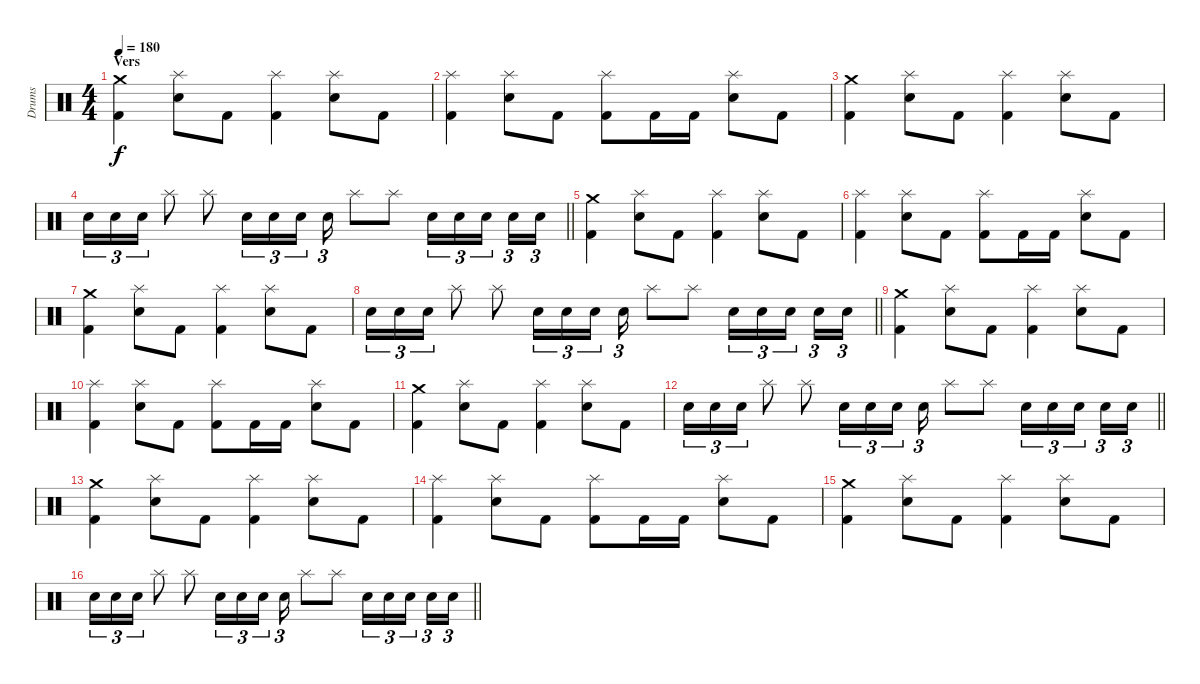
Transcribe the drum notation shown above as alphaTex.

\track ("Drums" "Drums") {instrument percussion}
\staff {score}
\articulation defaults
\ts (4 4)
\section ("" "Vers")
\tempo 180
\clef neutral
\ks c
("Crash medium (hit)" "Kick (hit) 2").4{dy f} ("Splash (hit)" "Snare (hit) 2").8 "Kick (hit) 2".8 ("Splash (hit)" "Kick (hit) 2").4 ("Splash (hit)" "Snare (hit) 2").8 "Kick (hit) 2".8 |
("Splash (hit)" "Kick (hit) 2").4 ("Splash (hit)" "Snare (hit) 2").8 "Kick (hit) 2".8 ("Splash (hit)" "Kick (hit) 2").8 "Kick (hit) 2".16 "Kick (hit) 2".16 ("Splash (hit)" "Snare (hit) 2").8 "Kick (hit) 2".8 |
("Crash medium (hit)" "Kick (hit) 2").4 ("Splash (hit)" "Snare (hit) 2").8 "Kick (hit) 2".8 ("Splash (hit)" "Kick (hit) 2").4 ("Splash (hit)" "Snare (hit) 2").8 "Kick (hit) 2".8 |
\barLineRight lightlight "Snare (hit) 2".16{tu (3 2)} "Snare (hit) 2".16{tu (3 2)} "Snare (hit) 2".16{tu (3 2)} "Splash (hit)".8 "Splash (hit)".8 "Snare (hit) 2".16{tu (3 2)} "Snare (hit) 2".16{tu (3 2)} "Snare (hit) 2".16{tu (3 2)} "Snare (hit) 2".16{tu (3 2)} "Splash (hit)".8 "Splash (hit)".8 "Snare (hit) 2".16{tu (3 2)} "Snare (hit) 2".16{tu (3 2)} "Snare (hit) 2".16{tu (3 2) beam splitsecondary} "Snare (hit) 2".16{tu (3 2)} "Snare (hit) 2".16{tu (3 2)}
|
("Crash medium (hit)" "Kick (hit) 2").4 ("Splash (hit)" "Snare (hit) 2").8 "Kick (hit) 2".8 ("Splash (hit)" "Kick (hit) 2").4 ("Splash (hit)" "Snare (hit) 2").8 "Kick (hit) 2".8 |
("Splash (hit)" "Kick (hit) 2").4 ("Splash (hit)" "Snare (hit) 2").8 "Kick (hit) 2".8 ("Splash (hit)" "Kick (hit) 2").8 "Kick (hit) 2".16 "Kick (hit) 2".16 ("Splash (hit)" "Snare (hit) 2").8 "Kick (hit) 2".8 |
("Crash medium (hit)" "Kick (hit) 2").4 ("Splash (hit)" "Snare (hit) 2").8 "Kick (hit) 2".8 ("Splash (hit)" "Kick (hit) 2").4 ("Splash (hit)" "Snare (hit) 2").8 "Kick (hit) 2".8 |
\barLineRight lightlight "Snare (hit) 2".16{tu (3 2)} "Snare (hit) 2".16{tu (3 2)} "Snare (hit) 2".16{tu (3 2)} "Splash (hit)".8 "Splash (hit)".8 "Snare (hit) 2".16{tu (3 2)} "Snare (hit) 2".16{tu (3 2)} "Snare (hit) 2".16{tu (3 2)} "Snare (hit) 2".16{tu (3 2)} "Splash (hit)".8 "Splash (hit)".8 "Snare (hit) 2".16{tu (3 2)} "Snare (hit) 2".16{tu (3 2)} "Snare (hit) 2".16{tu (3 2) beam splitsecondary} "Snare (hit) 2".16{tu (3 2)} "Snare (hit) 2".16{tu (3 2)}
|
("Crash medium (hit)" "Kick (hit) 2").4 ("Splash (hit)" "Snare (hit) 2").8 "Kick (hit) 2".8 ("Splash (hit)" "Kick (hit) 2").4 ("Splash (hit)" "Snare (hit) 2").8 "Kick (hit) 2".8 |
("Splash (hit)" "Kick (hit) 2").4 ("Splash (hit)" "Snare (hit) 2").8 "Kick (hit) 2".8 ("Splash (hit)" "Kick (hit) 2").8 "Kick (hit) 2".16 "Kick (hit) 2".16 ("Splash (hit)" "Snare (hit) 2").8 "Kick (hit) 2".8 |
("Crash medium (hit)" "Kick (hit) 2").4 ("Splash (hit)" "Snare (hit) 2").8 "Kick (hit) 2".8 ("Splash (hit)" "Kick (hit) 2").4 ("Splash (hit)" "Snare (hit) 2").8 "Kick (hit) 2".8 |
\barLineRight lightlight "Snare (hit) 2".16{tu (3 2)} "Snare (hit) 2".16{tu (3 2)} "Snare (hit) 2".16{tu (3 2)} "Splash (hit)".8 "Splash (hit)".8 "Snare (hit) 2".16{tu (3 2)} "Snare (hit) 2".16{tu (3 2)} "Snare (hit) 2".16{tu (3 2)} "Snare (hit) 2".16{tu (3 2)} "Splash (hit)".8 "Splash (hit)".8 "Snare (hit) 2".16{tu (3 2)} "Snare (hit) 2".16{tu (3 2)} "Snare (hit) 2".16{tu (3 2) beam splitsecondary} "Snare (hit) 2".16{tu (3 2)} "Snare (hit) 2".16{tu (3 2)}
|
("Crash medium (hit)" "Kick (hit) 2").4 ("Splash (hit)" "Snare (hit) 2").8 "Kick (hit) 2".8 ("Splash (hit)" "Kick (hit) 2").4 ("Splash (hit)" "Snare (hit) 2").8 "Kick (hit) 2".8 |
("Splash (hit)" "Kick (hit) 2").4 ("Splash (hit)" "Snare (hit) 2").8 "Kick (hit) 2".8 ("Splash (hit)" "Kick (hit) 2").8 "Kick (hit) 2".16 "Kick (hit) 2".16 ("Splash (hit)" "Snare (hit) 2").8 "Kick (hit) 2".8 |
("Crash medium (hit)" "Kick (hit) 2").4 ("Splash (hit)" "Snare (hit) 2").8 "Kick (hit) 2".8 ("Splash (hit)" "Kick (hit) 2").4 ("Splash (hit)" "Snare (hit) 2").8 "Kick (hit) 2".8 |
\barLineRight lightlight "Snare (hit) 2".16{tu (3 2)} "Snare (hit) 2".16{tu (3 2)} "Snare (hit) 2".16{tu (3 2)} "Splash (hit)".8 "Splash (hit)".8 "Snare (hit) 2".16{tu (3 2)} "Snare (hit) 2".16{tu (3 2)} "Snare (hit) 2".16{tu (3 2)} "Snare (hit) 2".16{tu (3 2)} "Splash (hit)".8 "Splash (hit)".8 "Snare (hit) 2".16{tu (3 2)} "Snare (hit) 2".16{tu (3 2)} "Snare (hit) 2".16{tu (3 2) beam splitsecondary} "Snare (hit) 2".16{tu (3 2)} "Snare (hit) 2".16{tu (3 2)}
